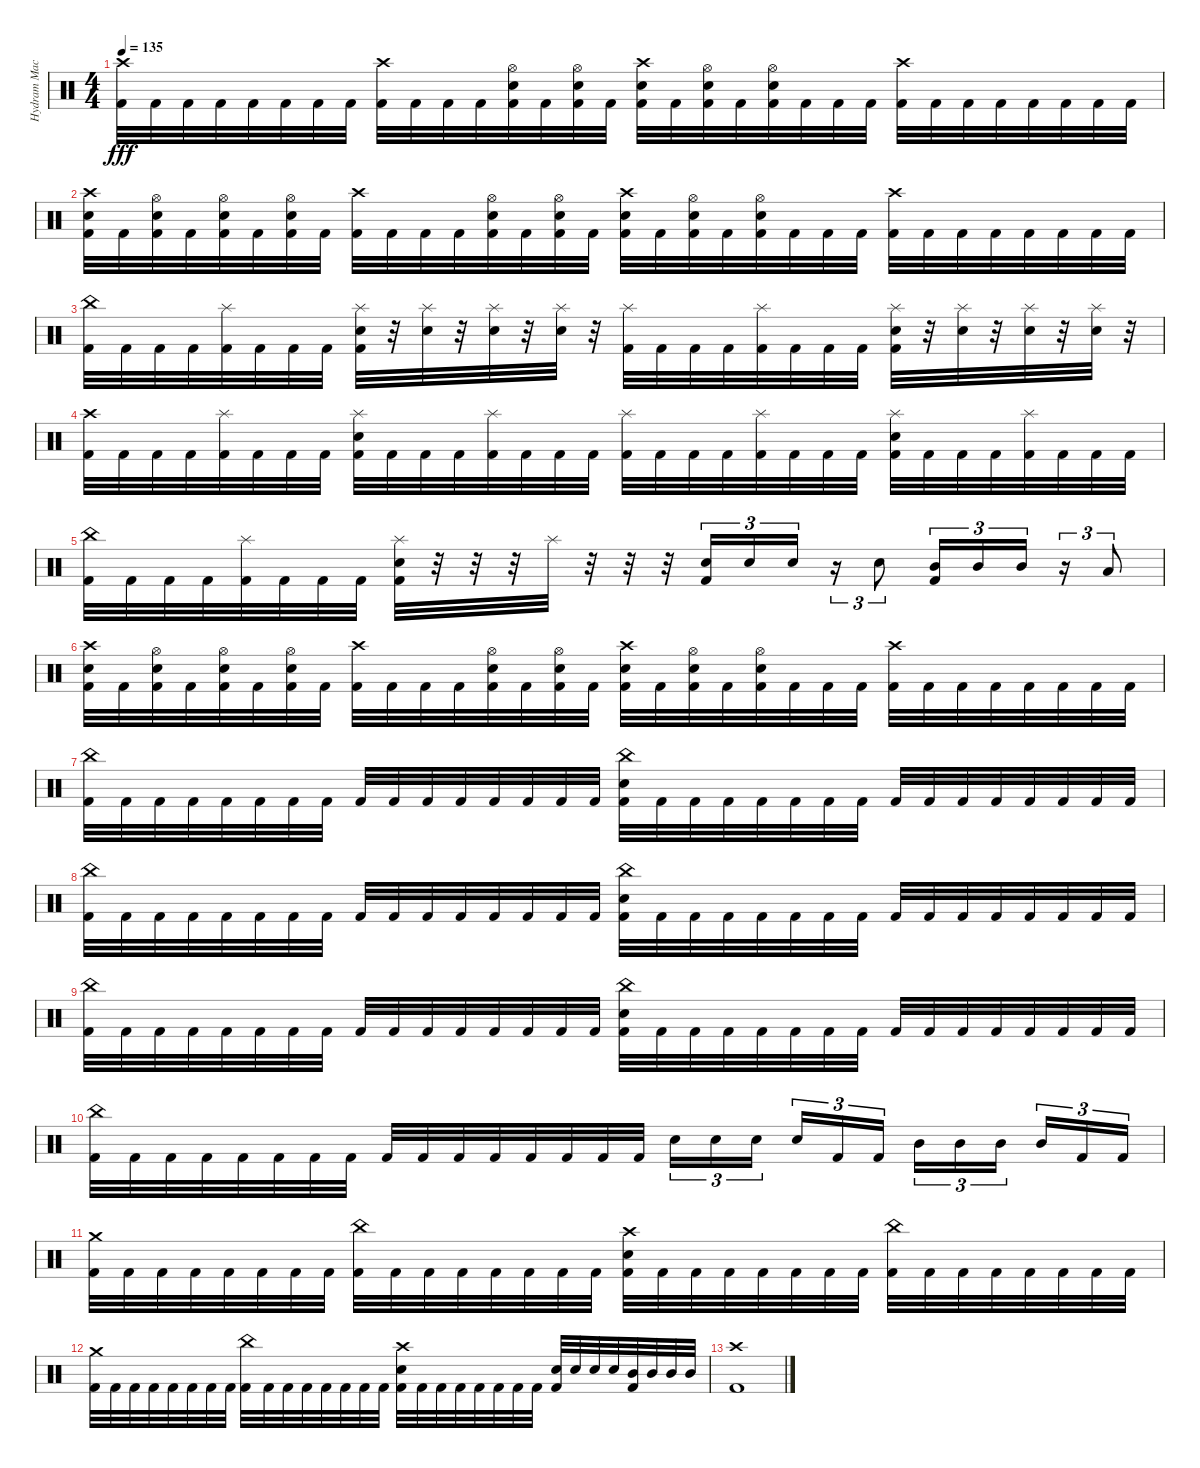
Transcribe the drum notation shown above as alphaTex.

\track ("Hydram Machine" "Hydram Mac") {instrument percussion}
\staff {score}
\articulation defaults
\ts (4 4)
\tempo 135
\clef neutral
\ks c
("Crash high (hit)" "Kick (hit) 2").32{dy fff} "Kick (hit) 2".32 "Kick (hit) 2".32 "Kick (hit) 2".32 "Kick (hit) 2".32 "Kick (hit) 2".32 "Kick (hit) 2".32 "Kick (hit) 2".32 ("Crash high (hit)" "Kick (hit) 2").32 "Kick (hit) 2".32 "Kick (hit) 2".32 "Kick (hit) 2".32 ("Hi-Hat (open)" "Electric Snare (hit)" "Kick (hit) 2").32 "Kick (hit) 2".32 ("Hi-Hat (open)" "Electric Snare (hit)" "Kick (hit) 2").32 "Kick (hit) 2".32 ("Crash high (hit)" "Electric Snare (hit)" "Kick (hit) 2").32 "Kick (hit) 2".32 ("Hi-Hat (open)" "Electric Snare (hit)" "Kick (hit) 2").32 "Kick (hit) 2".32 ("Hi-Hat (open)" "Electric Snare (hit)" "Kick (hit) 2").32 "Kick (hit) 2".32 "Kick (hit) 2".32 "Kick (hit) 2".32 ("Crash high (hit)" "Kick (hit) 2").32 "Kick (hit) 2".32 "Kick (hit) 2".32 "Kick (hit) 2".32 "Kick (hit) 2".32 "Kick (hit) 2".32 "Kick (hit) 2".32 "Kick (hit) 2".32 |
("Crash high (hit)" "Electric Snare (hit)" "Kick (hit) 2").32 "Kick (hit) 2".32 ("Hi-Hat (open)" "Electric Snare (hit)" "Kick (hit) 2").32 "Kick (hit) 2".32 ("Hi-Hat (open)" "Electric Snare (hit)" "Kick (hit) 2").32 "Kick (hit) 2".32 ("Hi-Hat (open)" "Electric Snare (hit)" "Kick (hit) 2").32 "Kick (hit) 2".32 ("Crash high (hit)" "Kick (hit) 2").32 "Kick (hit) 2".32 "Kick (hit) 2".32 "Kick (hit) 2".32 ("Hi-Hat (open)" "Electric Snare (hit)" "Kick (hit) 2").32 "Kick (hit) 2".32 ("Hi-Hat (open)" "Electric Snare (hit)" "Kick (hit) 2").32 "Kick (hit) 2".32 ("Crash high (hit)" "Electric Snare (hit)" "Kick (hit) 2").32 "Kick (hit) 2".32 ("Hi-Hat (open)" "Electric Snare (hit)" "Kick (hit) 2").32 "Kick (hit) 2".32 ("Hi-Hat (open)" "Electric Snare (hit)" "Kick (hit) 2").32 "Kick (hit) 2".32 "Kick (hit) 2".32 "Kick (hit) 2".32 ("Crash high (hit)" "Kick (hit) 2").32 "Kick (hit) 2".32 "Kick (hit) 2".32 "Kick (hit) 2".32 "Kick (hit) 2".32 "Kick (hit) 2".32 "Kick (hit) 2".32 "Kick (hit) 2".32 |
("China (hit)" "Kick (hit) 2").32 "Kick (hit) 2".32 "Kick (hit) 2".32 "Kick (hit) 2".32 ("Splash (hit)" "Kick (hit) 2").32 "Kick (hit) 2".32 "Kick (hit) 2".32 "Kick (hit) 2".32 ("Splash (hit)" "Electric Snare (hit)" "Kick (hit) 2").32 r.32 ("Splash (hit)" "Electric Snare (hit)").32 r.32 ("Splash (hit)" "Electric Snare (hit)").32 r.32 ("Splash (hit)" "Electric Snare (hit)").32 r.32 ("Splash (hit)" "Kick (hit) 2").32 "Kick (hit) 2".32 "Kick (hit) 2".32 "Kick (hit) 2".32 ("Splash (hit)" "Kick (hit) 2").32 "Kick (hit) 2".32 "Kick (hit) 2".32 "Kick (hit) 2".32 ("Splash (hit)" "Electric Snare (hit)" "Kick (hit) 2").32 r.32 ("Splash (hit)" "Electric Snare (hit)").32 r.32 ("Splash (hit)" "Electric Snare (hit)").32 r.32 ("Splash (hit)" "Electric Snare (hit)").32 r.32 |
("Crash high (hit)" "Kick (hit) 2").32 "Kick (hit) 2".32 "Kick (hit) 2".32 "Kick (hit) 2".32 ("Splash (hit)" "Kick (hit) 2").32 "Kick (hit) 2".32 "Kick (hit) 2".32 "Kick (hit) 2".32 ("Splash (hit)" "Electric Snare (hit)" "Kick (hit) 2").32 "Kick (hit) 2".32 "Kick (hit) 2".32 "Kick (hit) 2".32 ("Splash (hit)" "Kick (hit) 2").32 "Kick (hit) 2".32 "Kick (hit) 2".32 "Kick (hit) 2".32 ("Splash (hit)" "Kick (hit) 2").32 "Kick (hit) 2".32 "Kick (hit) 2".32 "Kick (hit) 2".32 ("Splash (hit)" "Kick (hit) 2").32 "Kick (hit) 2".32 "Kick (hit) 2".32 "Kick (hit) 2".32 ("Splash (hit)" "Electric Snare (hit)" "Kick (hit) 2").32 "Kick (hit) 2".32 "Kick (hit) 2".32 "Kick (hit) 2".32 ("Splash (hit)" "Kick (hit) 2").32 "Kick (hit) 2".32 "Kick (hit) 2".32 "Kick (hit) 2".32 |
("China (hit)" "Kick (hit) 2").32 "Kick (hit) 2".32 "Kick (hit) 2".32 "Kick (hit) 2".32 ("Splash (hit)" "Kick (hit) 2").32 "Kick (hit) 2".32 "Kick (hit) 2".32 "Kick (hit) 2".32 ("Splash (hit)" "Electric Snare (hit)" "Kick (hit) 2").32 r.32 r.32 r.32 "Splash (hit)".32 r.32 r.32 r.32 ("Electric Snare (hit)" "Kick (hit) 2").16{tu (3 2)} "Electric Snare (hit)".16{tu (3 2)} "Electric Snare (hit)".16{tu (3 2)} r.16{tu (3 2)} "Electric Snare (hit)".8{tu (3 2)} ("Mid Tom (hit)" "Kick (hit) 2").16{tu (3 2)} "Mid Tom (hit)".16{tu (3 2)} "Mid Tom (hit)".16{tu (3 2)} r.16{tu (3 2)} "Low Tom (hit)".8{tu (3 2)} |
("Crash high (hit)" "Electric Snare (hit)" "Kick (hit) 2").32 "Kick (hit) 2".32 ("Hi-Hat (open)" "Electric Snare (hit)" "Kick (hit) 2").32 "Kick (hit) 2".32 ("Hi-Hat (open)" "Electric Snare (hit)" "Kick (hit) 2").32 "Kick (hit) 2".32 ("Hi-Hat (open)" "Electric Snare (hit)" "Kick (hit) 2").32 "Kick (hit) 2".32 ("Crash high (hit)" "Kick (hit) 2").32 "Kick (hit) 2".32 "Kick (hit) 2".32 "Kick (hit) 2".32 ("Hi-Hat (open)" "Electric Snare (hit)" "Kick (hit) 2").32 "Kick (hit) 2".32 ("Hi-Hat (open)" "Electric Snare (hit)" "Kick (hit) 2").32 "Kick (hit) 2".32 ("Crash high (hit)" "Electric Snare (hit)" "Kick (hit) 2").32 "Kick (hit) 2".32 ("Hi-Hat (open)" "Electric Snare (hit)" "Kick (hit) 2").32 "Kick (hit) 2".32 ("Hi-Hat (open)" "Electric Snare (hit)" "Kick (hit) 2").32 "Kick (hit) 2".32 "Kick (hit) 2".32 "Kick (hit) 2".32 ("Crash high (hit)" "Kick (hit) 2").32 "Kick (hit) 2".32 "Kick (hit) 2".32 "Kick (hit) 2".32 "Kick (hit) 2".32 "Kick (hit) 2".32 "Kick (hit) 2".32 "Kick (hit) 2".32 |
("China (hit)" "Kick (hit) 2").32 "Kick (hit) 2".32 "Kick (hit) 2".32 "Kick (hit) 2".32 "Kick (hit) 2".32 "Kick (hit) 2".32 "Kick (hit) 2".32 "Kick (hit) 2".32 "Kick (hit) 2".32 "Kick (hit) 2".32 "Kick (hit) 2".32 "Kick (hit) 2".32 "Kick (hit) 2".32 "Kick (hit) 2".32 "Kick (hit) 2".32 "Kick (hit) 2".32 ("China (hit)" "Electric Snare (hit)" "Kick (hit) 2").32 "Kick (hit) 2".32 "Kick (hit) 2".32 "Kick (hit) 2".32 "Kick (hit) 2".32 "Kick (hit) 2".32 "Kick (hit) 2".32 "Kick (hit) 2".32 "Kick (hit) 2".32 "Kick (hit) 2".32 "Kick (hit) 2".32 "Kick (hit) 2".32 "Kick (hit) 2".32 "Kick (hit) 2".32 "Kick (hit) 2".32 "Kick (hit) 2".32 |
("China (hit)" "Kick (hit) 2").32 "Kick (hit) 2".32 "Kick (hit) 2".32 "Kick (hit) 2".32 "Kick (hit) 2".32 "Kick (hit) 2".32 "Kick (hit) 2".32 "Kick (hit) 2".32 "Kick (hit) 2".32 "Kick (hit) 2".32 "Kick (hit) 2".32 "Kick (hit) 2".32 "Kick (hit) 2".32 "Kick (hit) 2".32 "Kick (hit) 2".32 "Kick (hit) 2".32 ("China (hit)" "Electric Snare (hit)" "Kick (hit) 2").32 "Kick (hit) 2".32 "Kick (hit) 2".32 "Kick (hit) 2".32 "Kick (hit) 2".32 "Kick (hit) 2".32 "Kick (hit) 2".32 "Kick (hit) 2".32 "Kick (hit) 2".32 "Kick (hit) 2".32 "Kick (hit) 2".32 "Kick (hit) 2".32 "Kick (hit) 2".32 "Kick (hit) 2".32 "Kick (hit) 2".32 "Kick (hit) 2".32 |
("China (hit)" "Kick (hit) 2").32 "Kick (hit) 2".32 "Kick (hit) 2".32 "Kick (hit) 2".32 "Kick (hit) 2".32 "Kick (hit) 2".32 "Kick (hit) 2".32 "Kick (hit) 2".32 "Kick (hit) 2".32 "Kick (hit) 2".32 "Kick (hit) 2".32 "Kick (hit) 2".32 "Kick (hit) 2".32 "Kick (hit) 2".32 "Kick (hit) 2".32 "Kick (hit) 2".32 ("China (hit)" "Electric Snare (hit)" "Kick (hit) 2").32 "Kick (hit) 2".32 "Kick (hit) 2".32 "Kick (hit) 2".32 "Kick (hit) 2".32 "Kick (hit) 2".32 "Kick (hit) 2".32 "Kick (hit) 2".32 "Kick (hit) 2".32 "Kick (hit) 2".32 "Kick (hit) 2".32 "Kick (hit) 2".32 "Kick (hit) 2".32 "Kick (hit) 2".32 "Kick (hit) 2".32 "Kick (hit) 2".32 |
("China (hit)" "Kick (hit) 2").32 "Kick (hit) 2".32 "Kick (hit) 2".32 "Kick (hit) 2".32 "Kick (hit) 2".32 "Kick (hit) 2".32 "Kick (hit) 2".32 "Kick (hit) 2".32 "Kick (hit) 2".32 "Kick (hit) 2".32 "Kick (hit) 2".32 "Kick (hit) 2".32 "Kick (hit) 2".32 "Kick (hit) 2".32 "Kick (hit) 2".32 "Kick (hit) 2".32 "Electric Snare (hit)".16{tu (3 2)} "Electric Snare (hit)".16{tu (3 2)} "Electric Snare (hit)".16{tu (3 2) beam splitsecondary} "Electric Snare (hit)".16{tu (3 2)} "Kick (hit) 2".16{tu (3 2)} "Kick (hit) 2".16{tu (3 2)} "Mid Tom (hit)".16{tu (3 2)} "Mid Tom (hit)".16{tu (3 2)} "Mid Tom (hit)".16{tu (3 2) beam splitsecondary} "Mid Tom (hit)".16{tu (3 2)} "Kick (hit) 2".16{tu (3 2)} "Kick (hit) 2".16{tu (3 2)} |
("Crash medium (hit)" "Kick (hit) 2").32 "Kick (hit) 2".32 "Kick (hit) 2".32 "Kick (hit) 2".32 "Kick (hit) 2".32 "Kick (hit) 2".32 "Kick (hit) 2".32 "Kick (hit) 2".32 ("China (hit)" "Kick (hit) 2").32 "Kick (hit) 2".32 "Kick (hit) 2".32 "Kick (hit) 2".32 "Kick (hit) 2".32 "Kick (hit) 2".32 "Kick (hit) 2".32 "Kick (hit) 2".32 ("Crash high (hit)" "Electric Snare (hit)" "Kick (hit) 2").32 "Kick (hit) 2".32 "Kick (hit) 2".32 "Kick (hit) 2".32 "Kick (hit) 2".32 "Kick (hit) 2".32 "Kick (hit) 2".32 "Kick (hit) 2".32 ("China (hit)" "Kick (hit) 2").32 "Kick (hit) 2".32 "Kick (hit) 2".32 "Kick (hit) 2".32 "Kick (hit) 2".32 "Kick (hit) 2".32 "Kick (hit) 2".32 "Kick (hit) 2".32 |
("Crash medium (hit)" "Kick (hit) 2").32 "Kick (hit) 2".32 "Kick (hit) 2".32 "Kick (hit) 2".32 "Kick (hit) 2".32 "Kick (hit) 2".32 "Kick (hit) 2".32 "Kick (hit) 2".32 ("China (hit)" "Kick (hit) 2").32 "Kick (hit) 2".32 "Kick (hit) 2".32 "Kick (hit) 2".32 "Kick (hit) 2".32 "Kick (hit) 2".32 "Kick (hit) 2".32 "Kick (hit) 2".32 ("Crash high (hit)" "Electric Snare (hit)" "Kick (hit) 2").32 "Kick (hit) 2".32 "Kick (hit) 2".32 "Kick (hit) 2".32 "Kick (hit) 2".32 "Kick (hit) 2".32 "Kick (hit) 2".32 "Kick (hit) 2".32 ("Electric Snare (hit)" "Kick (hit) 2").32 "Electric Snare (hit)".32 "Electric Snare (hit)".32 "Electric Snare (hit)".32 ("Mid Tom (hit)" "Kick (hit) 2").32 "Mid Tom (hit)".32 "Mid Tom (hit)".32 "Mid Tom (hit)".32 |
("Crash high (hit)" "Kick (hit) 2").1
